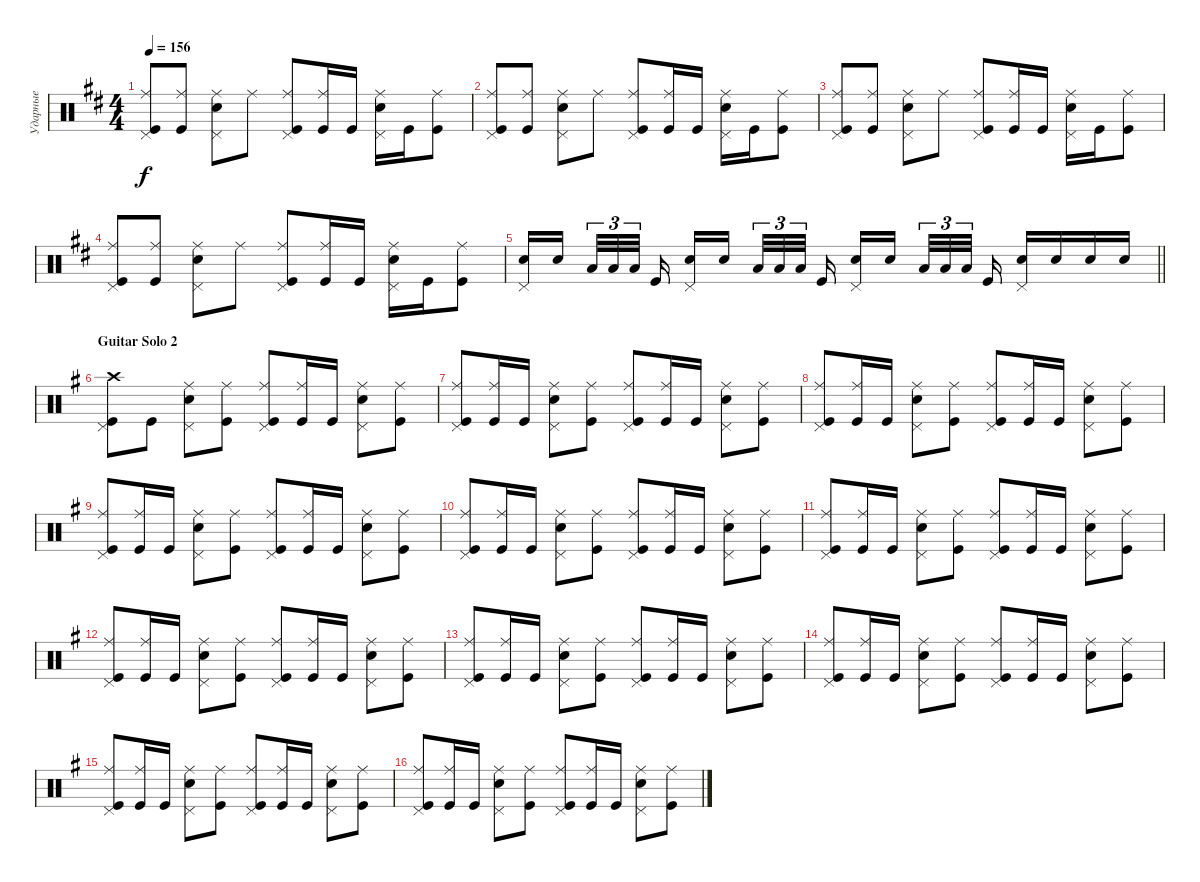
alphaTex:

\track ("Ударные" "Ударные") {instrument percussion}
\staff {score}
\articulation defaults
\ts (4 4)
\tempo 156
\clef neutral
\ks bminor
("Kick (hit)" "Ride (middle)" "Pedal Hi-Hat (hit)").8{dy f} ("Kick (hit)" "Ride (middle)").8 ("Snare (hit) 2" "Ride (middle)" "Pedal Hi-Hat (hit)").8 "Ride (middle)".8 ("Ride (middle)" "Kick (hit)" "Pedal Hi-Hat (hit)").8 ("Kick (hit)" "Ride (middle)").16 "Kick (hit)".16 ("Snare (hit) 2" "Ride (middle)" "Pedal Hi-Hat (hit)").16 "Kick (hit)".16 ("Ride (middle)" "Kick (hit)").8 |
("Kick (hit)" "Ride (middle)" "Pedal Hi-Hat (hit)").8 ("Kick (hit)" "Ride (middle)").8 ("Snare (hit) 2" "Ride (middle)" "Pedal Hi-Hat (hit)").8 "Ride (middle)".8 ("Ride (middle)" "Kick (hit)" "Pedal Hi-Hat (hit)").8 ("Kick (hit)" "Ride (middle)").16 "Kick (hit)".16 ("Snare (hit) 2" "Ride (middle)" "Pedal Hi-Hat (hit)").16 "Kick (hit)".16 ("Ride (middle)" "Kick (hit)").8 |
("Kick (hit)" "Ride (middle)" "Pedal Hi-Hat (hit)").8 ("Kick (hit)" "Ride (middle)").8 ("Snare (hit) 2" "Ride (middle)" "Pedal Hi-Hat (hit)").8 "Ride (middle)".8 ("Ride (middle)" "Kick (hit)" "Pedal Hi-Hat (hit)").8 ("Kick (hit)" "Ride (middle)").16 "Kick (hit)".16 ("Snare (hit) 2" "Ride (middle)" "Pedal Hi-Hat (hit)").16 "Kick (hit)".16 ("Ride (middle)" "Kick (hit)").8 |
("Kick (hit)" "Ride (middle)" "Pedal Hi-Hat (hit)").8 ("Kick (hit)" "Ride (middle)").8 ("Snare (hit) 2" "Ride (middle)" "Pedal Hi-Hat (hit)").8 "Ride (middle)".8 ("Ride (middle)" "Kick (hit)" "Pedal Hi-Hat (hit)").8 ("Kick (hit)" "Ride (middle)").16 "Kick (hit)".16 ("Snare (hit) 2" "Ride (middle)" "Pedal Hi-Hat (hit)").16 "Kick (hit)".16 ("Ride (middle)" "Kick (hit)").8 |
\barLineRight lightlight
("Snare (hit) 2" "Pedal Hi-Hat (hit)").16 "Snare (hit) 2".16{beam splitsecondary} "Low Tom (hit)".32{tu (3 2)} "Low Tom (hit)".32{tu (3 2)} "Low Tom (hit)".32{tu (3 2) beam splitsecondary} "Kick (hit)".16 ("Snare (hit) 2" "Pedal Hi-Hat (hit)").16 "Snare (hit) 2".16{beam splitsecondary} "Low Tom (hit)".32{tu (3 2)} "Low Tom (hit)".32{tu (3 2)} "Low Tom (hit)".32{tu (3 2) beam splitsecondary} "Kick (hit)".16 ("Snare (hit) 2" "Pedal Hi-Hat (hit)").16 "Snare (hit) 2".16{beam splitsecondary} "Low Tom (hit)".32{tu (3 2)} "Low Tom (hit)".32{tu (3 2)} "Low Tom (hit)".32{tu (3 2) beam splitsecondary} "Kick (hit)".16 ("Snare (hit) 2" "Pedal Hi-Hat (hit)").16 "Snare (hit) 2".16 "Snare (hit) 2".16 "Snare (hit) 2".16 |
\section ("" "Guitar Solo 2")
\ks eminor
("Crash high (hit)" "Kick (hit)" "Pedal Hi-Hat (hit)").8 "Kick (hit)".8 ("Snare (hit) 2" "Ride (middle)" "Pedal Hi-Hat (hit)").8 ("Ride (middle)" "Kick (hit)").8 ("Ride (middle)" "Kick (hit)" "Pedal Hi-Hat (hit)").8 ("Kick (hit)" "Ride (middle)").16 "Kick (hit)".16 ("Snare (hit) 2" "Ride (middle)" "Pedal Hi-Hat (hit)").8 ("Ride (middle)" "Kick (hit)").8 |
("Ride (middle)" "Kick (hit)" "Pedal Hi-Hat (hit)").8 ("Kick (hit)" "Ride (middle)").16 "Kick (hit)".16 ("Snare (hit) 2" "Ride (middle)" "Pedal Hi-Hat (hit)").8 ("Ride (middle)" "Kick (hit)").8 ("Ride (middle)" "Kick (hit)" "Pedal Hi-Hat (hit)").8 ("Kick (hit)" "Ride (middle)").16 "Kick (hit)".16 ("Snare (hit) 2" "Ride (middle)" "Pedal Hi-Hat (hit)").8 ("Ride (middle)" "Kick (hit)").8 |
("Ride (middle)" "Kick (hit)" "Pedal Hi-Hat (hit)").8 ("Kick (hit)" "Ride (middle)").16 "Kick (hit)".16 ("Snare (hit) 2" "Ride (middle)" "Pedal Hi-Hat (hit)").8 ("Ride (middle)" "Kick (hit)").8 ("Ride (middle)" "Kick (hit)" "Pedal Hi-Hat (hit)").8 ("Kick (hit)" "Ride (middle)").16 "Kick (hit)".16 ("Snare (hit) 2" "Ride (middle)" "Pedal Hi-Hat (hit)").8 ("Ride (middle)" "Kick (hit)").8 |
("Ride (middle)" "Kick (hit)" "Pedal Hi-Hat (hit)").8 ("Kick (hit)" "Ride (middle)").16 "Kick (hit)".16 ("Snare (hit) 2" "Ride (middle)" "Pedal Hi-Hat (hit)").8 ("Ride (middle)" "Kick (hit)").8 ("Ride (middle)" "Kick (hit)" "Pedal Hi-Hat (hit)").8 ("Kick (hit)" "Ride (middle)").16 "Kick (hit)".16 ("Snare (hit) 2" "Ride (middle)" "Pedal Hi-Hat (hit)").8 ("Ride (middle)" "Kick (hit)").8 |
("Ride (middle)" "Kick (hit)" "Pedal Hi-Hat (hit)").8 ("Kick (hit)" "Ride (middle)").16 "Kick (hit)".16 ("Snare (hit) 2" "Ride (middle)" "Pedal Hi-Hat (hit)").8 ("Ride (middle)" "Kick (hit)").8 ("Ride (middle)" "Kick (hit)" "Pedal Hi-Hat (hit)").8 ("Kick (hit)" "Ride (middle)").16 "Kick (hit)".16 ("Snare (hit) 2" "Ride (middle)" "Pedal Hi-Hat (hit)").8 ("Ride (middle)" "Kick (hit)").8 |
("Ride (middle)" "Kick (hit)" "Pedal Hi-Hat (hit)").8 ("Kick (hit)" "Ride (middle)").16 "Kick (hit)".16 ("Snare (hit) 2" "Ride (middle)" "Pedal Hi-Hat (hit)").8 ("Ride (middle)" "Kick (hit)").8 ("Ride (middle)" "Kick (hit)" "Pedal Hi-Hat (hit)").8 ("Kick (hit)" "Ride (middle)").16 "Kick (hit)".16 ("Snare (hit) 2" "Ride (middle)" "Pedal Hi-Hat (hit)").8 ("Ride (middle)" "Kick (hit)").8 |
("Ride (middle)" "Kick (hit)" "Pedal Hi-Hat (hit)").8 ("Kick (hit)" "Ride (middle)").16 "Kick (hit)".16 ("Snare (hit) 2" "Ride (middle)" "Pedal Hi-Hat (hit)").8 ("Ride (middle)" "Kick (hit)").8 ("Ride (middle)" "Kick (hit)" "Pedal Hi-Hat (hit)").8 ("Kick (hit)" "Ride (middle)").16 "Kick (hit)".16 ("Snare (hit) 2" "Ride (middle)" "Pedal Hi-Hat (hit)").8 ("Ride (middle)" "Kick (hit)").8 |
("Ride (middle)" "Kick (hit)" "Pedal Hi-Hat (hit)").8 ("Kick (hit)" "Ride (middle)").16 "Kick (hit)".16 ("Snare (hit) 2" "Ride (middle)" "Pedal Hi-Hat (hit)").8 ("Ride (middle)" "Kick (hit)").8 ("Ride (middle)" "Kick (hit)" "Pedal Hi-Hat (hit)").8 ("Kick (hit)" "Ride (middle)").16 "Kick (hit)".16 ("Snare (hit) 2" "Ride (middle)" "Pedal Hi-Hat (hit)").8 ("Ride (middle)" "Kick (hit)").8 |
("Ride (middle)" "Kick (hit)" "Pedal Hi-Hat (hit)").8 ("Kick (hit)" "Ride (middle)").16 "Kick (hit)".16 ("Snare (hit) 2" "Ride (middle)" "Pedal Hi-Hat (hit)").8 ("Ride (middle)" "Kick (hit)").8 ("Ride (middle)" "Kick (hit)" "Pedal Hi-Hat (hit)").8 ("Kick (hit)" "Ride (middle)").16 "Kick (hit)".16 ("Snare (hit) 2" "Ride (middle)" "Pedal Hi-Hat (hit)").8 ("Ride (middle)" "Kick (hit)").8 |
("Ride (middle)" "Kick (hit)" "Pedal Hi-Hat (hit)").8 ("Kick (hit)" "Ride (middle)").16 "Kick (hit)".16 ("Snare (hit) 2" "Ride (middle)" "Pedal Hi-Hat (hit)").8 ("Ride (middle)" "Kick (hit)").8 ("Ride (middle)" "Kick (hit)" "Pedal Hi-Hat (hit)").8 ("Kick (hit)" "Ride (middle)").16 "Kick (hit)".16 ("Snare (hit) 2" "Ride (middle)" "Pedal Hi-Hat (hit)").8 ("Ride (middle)" "Kick (hit)").8 |
("Ride (middle)" "Kick (hit)" "Pedal Hi-Hat (hit)").8 ("Kick (hit)" "Ride (middle)").16 "Kick (hit)".16 ("Snare (hit) 2" "Ride (middle)" "Pedal Hi-Hat (hit)").8 ("Ride (middle)" "Kick (hit)").8 ("Ride (middle)" "Kick (hit)" "Pedal Hi-Hat (hit)").8 ("Kick (hit)" "Ride (middle)").16 "Kick (hit)".16 ("Snare (hit) 2" "Ride (middle)" "Pedal Hi-Hat (hit)").8 ("Ride (middle)" "Kick (hit)").8
